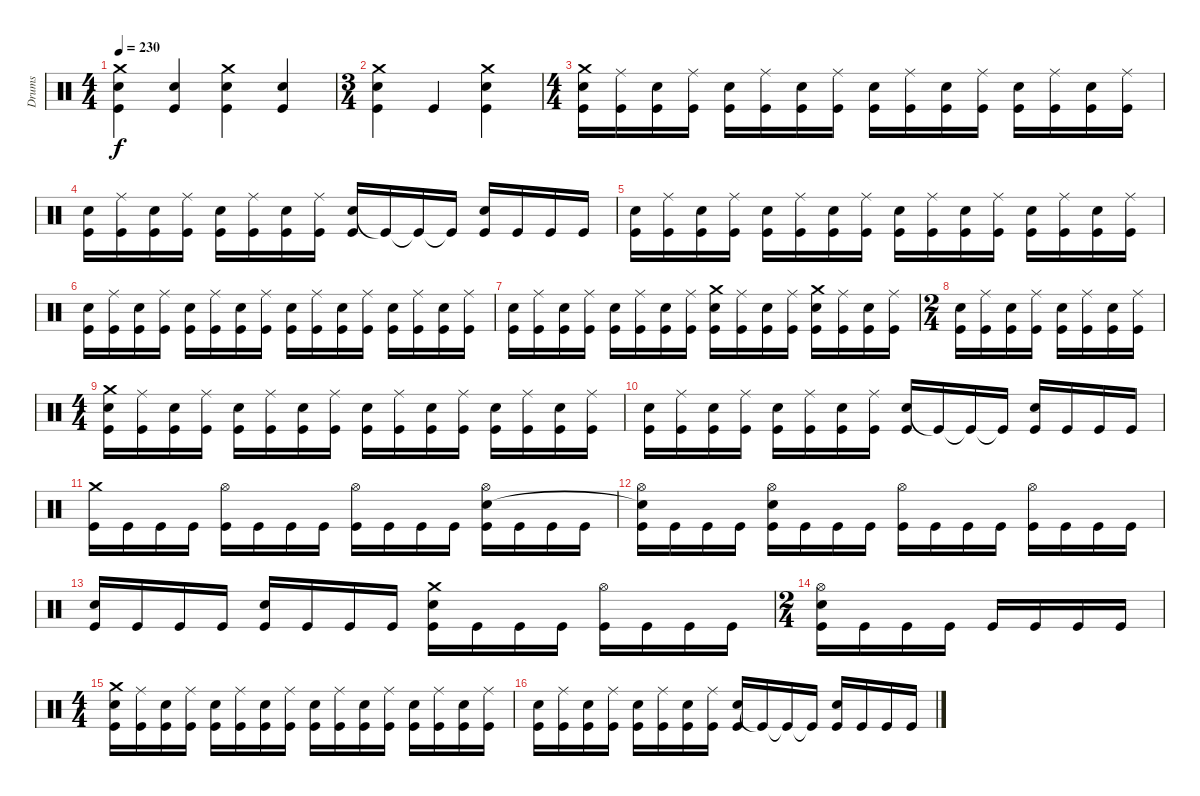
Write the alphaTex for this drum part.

\track ("Drums" "Drums") {instrument percussion}
\staff {score}
\articulation defaults
\ts (4 4)
\tempo 230
\clef neutral
\ks c
("Crash medium (hit)" "Electric Snare (hit)" "Kick (hit)").4{dy f} ("Electric Snare (hit)" "Kick (hit)").4 ("Crash medium (hit)" "Electric Snare (hit)" "Kick (hit)").4 ("Electric Snare (hit)" "Kick (hit)").4 |
\ts (3 4)
("Crash medium (hit)" "Electric Snare (hit)" "Kick (hit)").4 "Kick (hit)".4 ("Crash medium (hit)" "Electric Snare (hit)" "Kick (hit)").4 |
\ts (4 4)
("Crash medium (hit)" "Electric Snare (hit)" "Kick (hit)").16 ("Ride (middle)" "Kick (hit)").16 ("Electric Snare (hit)" "Kick (hit)").16 ("Ride (middle)" "Kick (hit)").16 ("Electric Snare (hit)" "Kick (hit)").16 ("Ride (middle)" "Kick (hit)").16 ("Electric Snare (hit)" "Kick (hit)").16 ("Ride (middle)" "Kick (hit)").16 ("Electric Snare (hit)" "Kick (hit)").16 ("Ride (middle)" "Kick (hit)").16 ("Electric Snare (hit)" "Kick (hit)").16 ("Ride (middle)" "Kick (hit)").16 ("Electric Snare (hit)" "Kick (hit)").16 ("Ride (middle)" "Kick (hit)").16 ("Electric Snare (hit)" "Kick (hit)").16 ("Ride (middle)" "Kick (hit)").16 |
("Electric Snare (hit)" "Kick (hit)").16 ("Ride (middle)" "Kick (hit)").16 ("Electric Snare (hit)" "Kick (hit)").16 ("Ride (middle)" "Kick (hit)").16 ("Electric Snare (hit)" "Kick (hit)").16 ("Ride (middle)" "Kick (hit)").16 ("Electric Snare (hit)" "Kick (hit)").16 ("Ride (middle)" "Kick (hit)").16 ("Electric Snare (hit)" "Kick (hit)").16 "Kick (hit)"{t}.16 "Kick (hit)"{t}.16 "Kick (hit)"{t}.16 ("Electric Snare (hit)" "Kick (hit)").16 "Kick (hit)".16 "Kick (hit)".16 "Kick (hit)".16 |
("Electric Snare (hit)" "Kick (hit)").16 ("Ride (middle)" "Kick (hit)").16 ("Electric Snare (hit)" "Kick (hit)").16 ("Ride (middle)" "Kick (hit)").16 ("Electric Snare (hit)" "Kick (hit)").16 ("Ride (middle)" "Kick (hit)").16 ("Electric Snare (hit)" "Kick (hit)").16 ("Ride (middle)" "Kick (hit)").16 ("Electric Snare (hit)" "Kick (hit)").16 ("Ride (middle)" "Kick (hit)").16 ("Electric Snare (hit)" "Kick (hit)").16 ("Ride (middle)" "Kick (hit)").16 ("Electric Snare (hit)" "Kick (hit)").16 ("Ride (middle)" "Kick (hit)").16 ("Electric Snare (hit)" "Kick (hit)").16 ("Ride (middle)" "Kick (hit)").16 |
("Electric Snare (hit)" "Kick (hit)").16 ("Ride (middle)" "Kick (hit)").16 ("Electric Snare (hit)" "Kick (hit)").16 ("Ride (middle)" "Kick (hit)").16 ("Electric Snare (hit)" "Kick (hit)").16 ("Ride (middle)" "Kick (hit)").16 ("Electric Snare (hit)" "Kick (hit)").16 ("Ride (middle)" "Kick (hit)").16 ("Electric Snare (hit)" "Kick (hit)").16 ("Ride (middle)" "Kick (hit)").16 ("Electric Snare (hit)" "Kick (hit)").16 ("Ride (middle)" "Kick (hit)").16 ("Electric Snare (hit)" "Kick (hit)").16 ("Ride (middle)" "Kick (hit)").16 ("Electric Snare (hit)" "Kick (hit)").16 ("Ride (middle)" "Kick (hit)").16 |
("Electric Snare (hit)" "Kick (hit)").16 ("Ride (middle)" "Kick (hit)").16 ("Electric Snare (hit)" "Kick (hit)").16 ("Ride (middle)" "Kick (hit)").16 ("Electric Snare (hit)" "Kick (hit)").16 ("Ride (middle)" "Kick (hit)").16 ("Electric Snare (hit)" "Kick (hit)").16 ("Ride (middle)" "Kick (hit)").16 ("Crash medium (hit)" "Electric Snare (hit)" "Kick (hit)").16 ("Ride (middle)" "Kick (hit)").16 ("Electric Snare (hit)" "Kick (hit)").16 ("Ride (middle)" "Kick (hit)").16 ("Crash medium (hit)" "Electric Snare (hit)" "Kick (hit)").16 ("Ride (middle)" "Kick (hit)").16 ("Electric Snare (hit)" "Kick (hit)").16 ("Ride (middle)" "Kick (hit)").16 |
\ts (2 4)
("Electric Snare (hit)" "Kick (hit)").16 ("Ride (middle)" "Kick (hit)").16 ("Electric Snare (hit)" "Kick (hit)").16 ("Ride (middle)" "Kick (hit)").16 ("Electric Snare (hit)" "Kick (hit)").16 ("Ride (middle)" "Kick (hit)").16 ("Electric Snare (hit)" "Kick (hit)").16 ("Ride (middle)" "Kick (hit)").16 |
\ts (4 4)
("Crash medium (hit)" "Electric Snare (hit)" "Kick (hit)").16 ("Ride (middle)" "Kick (hit)").16 ("Electric Snare (hit)" "Kick (hit)").16 ("Ride (middle)" "Kick (hit)").16 ("Electric Snare (hit)" "Kick (hit)").16 ("Ride (middle)" "Kick (hit)").16 ("Electric Snare (hit)" "Kick (hit)").16 ("Ride (middle)" "Kick (hit)").16 ("Electric Snare (hit)" "Kick (hit)").16 ("Ride (middle)" "Kick (hit)").16 ("Electric Snare (hit)" "Kick (hit)").16 ("Ride (middle)" "Kick (hit)").16 ("Electric Snare (hit)" "Kick (hit)").16 ("Ride (middle)" "Kick (hit)").16 ("Electric Snare (hit)" "Kick (hit)").16 ("Ride (middle)" "Kick (hit)").16 |
("Electric Snare (hit)" "Kick (hit)").16 ("Ride (middle)" "Kick (hit)").16 ("Electric Snare (hit)" "Kick (hit)").16 ("Ride (middle)" "Kick (hit)").16 ("Electric Snare (hit)" "Kick (hit)").16 ("Ride (middle)" "Kick (hit)").16 ("Electric Snare (hit)" "Kick (hit)").16 ("Ride (middle)" "Kick (hit)").16 ("Electric Snare (hit)" "Kick (hit)").16 "Kick (hit)"{t}.16 "Kick (hit)"{t}.16 "Kick (hit)"{t}.16 ("Electric Snare (hit)" "Kick (hit)").16 "Kick (hit)".16 "Kick (hit)".16 "Kick (hit)".16 |
("Crash medium (hit)" "Kick (hit)").16 "Kick (hit)".16 "Kick (hit)".16 "Kick (hit)".16 ("Hi-Hat (open)" "Kick (hit)").16 "Kick (hit)".16 "Kick (hit)".16 "Kick (hit)".16 ("Hi-Hat (open)" "Kick (hit)").16 "Kick (hit)".16 "Kick (hit)".16 "Kick (hit)".16 ("Hi-Hat (open)" "Electric Snare (hit)" "Kick (hit)").16 "Kick (hit)".16 "Kick (hit)".16 "Kick (hit)".16 |
("Hi-Hat (open)" "Electric Snare (hit)"{t} "Kick (hit)").16 "Kick (hit)".16 "Kick (hit)".16 "Kick (hit)".16 ("Hi-Hat (open)" "Electric Snare (hit)" "Kick (hit)").16 "Kick (hit)".16 "Kick (hit)".16 "Kick (hit)".16 ("Hi-Hat (open)" "Kick (hit)").16 "Kick (hit)".16 "Kick (hit)".16 "Kick (hit)".16 ("Hi-Hat (open)" "Kick (hit)").16 "Kick (hit)".16 "Kick (hit)".16 "Kick (hit)".16 |
("Electric Snare (hit)" "Kick (hit)").16 "Kick (hit)".16 "Kick (hit)".16 "Kick (hit)".16 ("Electric Snare (hit)" "Kick (hit)").16 "Kick (hit)".16 "Kick (hit)".16 "Kick (hit)".16 ("Crash medium (hit)" "Electric Snare (hit)" "Kick (hit)").16 "Kick (hit)".16 "Kick (hit)".16 "Kick (hit)".16 ("Hi-Hat (open)" "Kick (hit)").16 "Kick (hit)".16 "Kick (hit)".16 "Kick (hit)".16 |
\ts (2 4)
("Hi-Hat (open)" "Electric Snare (hit)" "Kick (hit)").16 "Kick (hit)".16 "Kick (hit)".16 "Kick (hit)".16 "Kick (hit)".16 "Kick (hit)".16 "Kick (hit)".16 "Kick (hit)".16 |
\ts (4 4)
("Crash medium (hit)" "Electric Snare (hit)" "Kick (hit)").16 ("Ride (middle)" "Kick (hit)").16 ("Electric Snare (hit)" "Kick (hit)").16 ("Ride (middle)" "Kick (hit)").16 ("Electric Snare (hit)" "Kick (hit)").16 ("Ride (middle)" "Kick (hit)").16 ("Electric Snare (hit)" "Kick (hit)").16 ("Ride (middle)" "Kick (hit)").16 ("Electric Snare (hit)" "Kick (hit)").16 ("Ride (middle)" "Kick (hit)").16 ("Electric Snare (hit)" "Kick (hit)").16 ("Ride (middle)" "Kick (hit)").16 ("Electric Snare (hit)" "Kick (hit)").16 ("Ride (middle)" "Kick (hit)").16 ("Electric Snare (hit)" "Kick (hit)").16 ("Ride (middle)" "Kick (hit)").16 |
("Electric Snare (hit)" "Kick (hit)").16 ("Ride (middle)" "Kick (hit)").16 ("Electric Snare (hit)" "Kick (hit)").16 ("Ride (middle)" "Kick (hit)").16 ("Electric Snare (hit)" "Kick (hit)").16 ("Ride (middle)" "Kick (hit)").16 ("Electric Snare (hit)" "Kick (hit)").16 ("Ride (middle)" "Kick (hit)").16 ("Electric Snare (hit)" "Kick (hit)").16 "Kick (hit)"{t}.16 "Kick (hit)"{t}.16 "Kick (hit)"{t}.16 ("Electric Snare (hit)" "Kick (hit)").16 "Kick (hit)".16 "Kick (hit)".16 "Kick (hit)".16
